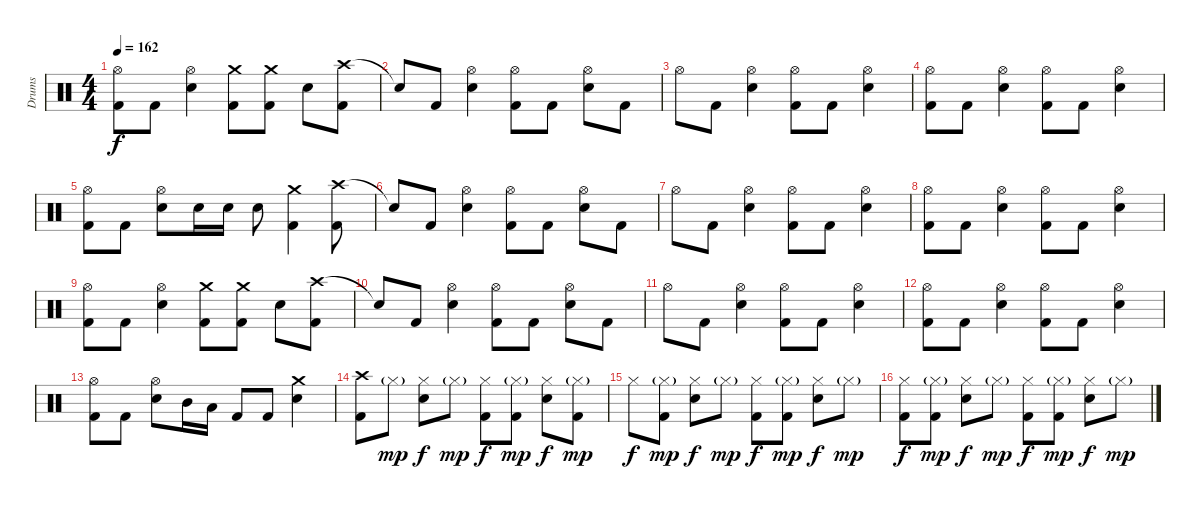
\track ("Drums" "Drums") {instrument percussion}
\staff {score}
\articulation defaults
\ts (4 4)
\tempo 162
\clef neutral
\ks c
("Hi-Hat (open)" "Kick (hit) 2").8{dy f} "Kick (hit) 2".8 ("Hi-Hat (open)" "Snare (hit) 2").4 ("Crash medium (hit)" "Kick (hit) 2").8 ("Crash medium (hit)" "Kick (hit) 2").8 "Snare (hit) 2".8 ("Crash high (hit)" "Kick (hit) 2").8 |
"Snare (hit)"{t}.8 "Kick (hit) 2".8 ("Hi-Hat (open)" "Snare (hit) 2").4 ("Hi-Hat (open)" "Kick (hit) 2").8 "Kick (hit) 2".8 ("Hi-Hat (open)" "Snare (hit) 2").8 "Kick (hit) 2".8 |
"Hi-Hat (open)".8 "Kick (hit) 2".8 ("Hi-Hat (open)" "Snare (hit) 2").4 ("Hi-Hat (open)" "Kick (hit) 2").8 "Kick (hit) 2".8 ("Hi-Hat (open)" "Snare (hit) 2").4 |
("Hi-Hat (open)" "Kick (hit) 2").8 "Kick (hit) 2".8 ("Hi-Hat (open)" "Snare (hit) 2").4 ("Hi-Hat (open)" "Kick (hit) 2").8 "Kick (hit) 2".8 ("Hi-Hat (open)" "Snare (hit) 2").4 |
("Hi-Hat (open)" "Kick (hit) 2").8 "Kick (hit) 2".8 ("Hi-Hat (open)" "Snare (hit) 2").8 "Snare (hit) 2".16 "Snare (hit) 2".16 "Snare (hit) 2".8 ("Crash medium (hit)" "Kick (hit) 2").4 ("Crash high (hit)" "Kick (hit) 2").8 |
"Snare (hit)"{t}.8 "Kick (hit) 2".8 ("Hi-Hat (open)" "Snare (hit) 2").4 ("Hi-Hat (open)" "Kick (hit) 2").8 "Kick (hit) 2".8 ("Hi-Hat (open)" "Snare (hit) 2").8 "Kick (hit) 2".8 |
"Hi-Hat (open)".8 "Kick (hit) 2".8 ("Hi-Hat (open)" "Snare (hit) 2").4 ("Hi-Hat (open)" "Kick (hit) 2").8 "Kick (hit) 2".8 ("Hi-Hat (open)" "Snare (hit) 2").4 |
("Hi-Hat (open)" "Kick (hit) 2").8 "Kick (hit) 2".8 ("Hi-Hat (open)" "Snare (hit) 2").4 ("Hi-Hat (open)" "Kick (hit) 2").8 "Kick (hit) 2".8 ("Hi-Hat (open)" "Snare (hit) 2").4 |
("Hi-Hat (open)" "Kick (hit) 2").8 "Kick (hit) 2".8 ("Hi-Hat (open)" "Snare (hit) 2").4 ("Crash medium (hit)" "Kick (hit) 2").8 ("Crash medium (hit)" "Kick (hit) 2").8 "Snare (hit) 2".8 ("Crash high (hit)" "Kick (hit) 2").8 |
"Snare (hit)"{t}.8 "Kick (hit) 2".8 ("Hi-Hat (open)" "Snare (hit) 2").4 ("Hi-Hat (open)" "Kick (hit) 2").8 "Kick (hit) 2".8 ("Hi-Hat (open)" "Snare (hit) 2").8 "Kick (hit) 2".8 |
"Hi-Hat (open)".8 "Kick (hit) 2".8 ("Hi-Hat (open)" "Snare (hit) 2").4 ("Hi-Hat (open)" "Kick (hit) 2").8 "Kick (hit) 2".8 ("Hi-Hat (open)" "Snare (hit) 2").4 |
("Hi-Hat (open)" "Kick (hit) 2").8 "Kick (hit) 2".8 ("Hi-Hat (open)" "Snare (hit) 2").4 ("Hi-Hat (open)" "Kick (hit) 2").8 "Kick (hit) 2".8 ("Hi-Hat (open)" "Snare (hit) 2").4 |
("Hi-Hat (open)" "Kick (hit) 2").8 "Kick (hit) 2".8 ("Hi-Hat (open)" "Snare (hit) 2").8 "Mid Tom (hit)".16 "Low Tom (hit)".16 "Kick (hit) 2".8 "Kick (hit) 2".8 ("Crash medium (hit)" "Snare (hit) 2").4 |
("Crash high (hit)" "Kick (hit) 2").8 "Hi-Hat (closed)"{g}.8{dy mp} ("Hi-Hat (closed)" "Snare (hit) 2").8{dy f} "Hi-Hat (closed)"{g}.8{dy mp} ("Hi-Hat (closed)" "Kick (hit) 2").8{dy f} ("Hi-Hat (closed)"{g} "Kick (hit) 2").8{dy mp} ("Hi-Hat (closed)" "Snare (hit) 2").8{dy f} ("Hi-Hat (closed)"{g} "Kick (hit) 2").8{dy mp} |
"Hi-Hat (closed)".8{dy f} ("Hi-Hat (closed)"{g} "Kick (hit) 2").8{dy mp} ("Hi-Hat (closed)" "Snare (hit) 2").8{dy f} "Hi-Hat (closed)"{g}.8{dy mp} ("Hi-Hat (closed)" "Kick (hit) 2").8{dy f} ("Hi-Hat (closed)"{g} "Kick (hit) 2").8{dy mp} ("Hi-Hat (closed)" "Snare (hit) 2").8{dy f} "Hi-Hat (closed)"{g}.8{dy mp} |
("Hi-Hat (closed)" "Kick (hit) 2").8{dy f} ("Hi-Hat (closed)"{g} "Kick (hit) 2").8{dy mp} ("Hi-Hat (closed)" "Snare (hit) 2").8{dy f} "Hi-Hat (closed)"{g}.8{dy mp} ("Hi-Hat (closed)" "Kick (hit) 2").8{dy f} ("Hi-Hat (closed)"{g} "Kick (hit) 2").8{dy mp} ("Hi-Hat (closed)" "Snare (hit) 2").8{dy f} "Hi-Hat (closed)"{g}.8{dy mp}
